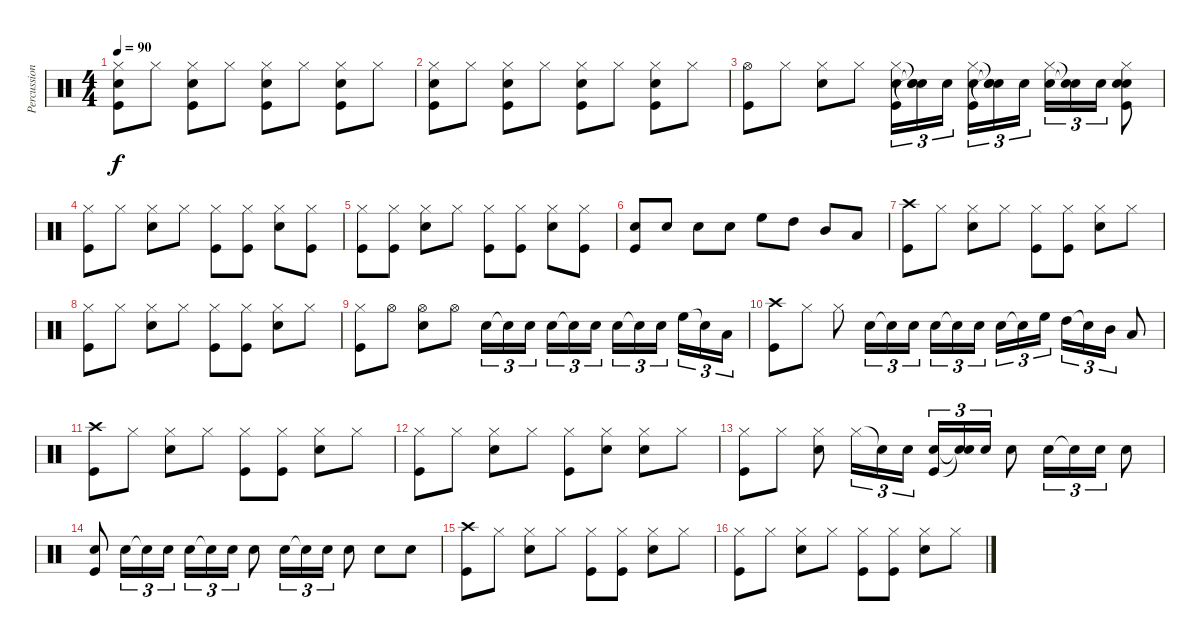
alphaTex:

\track ("Percussion" "Percussion") {instrument percussion}
\staff {score}
\articulation defaults
\ts (4 4)
\tempo 90
\clef neutral
\ks c
("Hi-Hat (closed)" "Snare (hit) 2" "Kick (hit)").8{dy f} "Hi-Hat (closed)".8 ("Hi-Hat (closed)" "Snare (hit) 2" "Kick (hit)").8 "Hi-Hat (closed)".8 ("Hi-Hat (closed)" "Snare (hit) 2" "Kick (hit)").8 "Hi-Hat (closed)".8 ("Hi-Hat (closed)" "Snare (hit) 2" "Kick (hit)").8 "Hi-Hat (closed)".8 |
("Hi-Hat (closed)" "Snare (hit) 2" "Kick (hit)").8 "Hi-Hat (closed)".8 ("Hi-Hat (closed)" "Snare (hit) 2" "Kick (hit)").8 "Hi-Hat (closed)".8 ("Hi-Hat (closed)" "Snare (hit) 2" "Kick (hit)").8 "Hi-Hat (closed)".8 ("Hi-Hat (closed)" "Snare (hit) 2" "Kick (hit)").8 "Hi-Hat (closed)".8 |
("Hi-Hat (open)" "Kick (hit)").8 "Hi-Hat (closed)".8 ("Hi-Hat (closed)" "Snare (hit) 2").8 "Hi-Hat (closed)".8 ("Hi-Hat (closed)" "Snare (hit) 2" "Kick (hit)").16{tu (3 2)} ("Snare (hit)"{t} "Snare (hit)"{t} "Snare (hit)"{t}).16{tu (3 2)} "Snare (hit) 2".16{tu (3 2)} ("Hi-Hat (closed)" "Snare (hit) 2" "Kick (hit)").16{tu (3 2)} ("Snare (hit)"{t} "Snare (hit)"{t} "Snare (hit)"{t}).16{tu (3 2)} "Snare (hit) 2".16{tu (3 2)} ("Hi-Hat (closed)" "Snare (hit) 2").16{tu (3 2)} ("Snare (hit)"{t} "Snare (hit)"{t}).16{tu (3 2)} "Snare (hit) 2".16{tu (3 2)} ("Hi-Hat (closed)" "Snare (hit) 2" "Snare (hit) 2" "Kick (hit)").8 |
("Hi-Hat (closed)" "Kick (hit)").8 "Hi-Hat (closed)".8 ("Hi-Hat (closed)" "Snare (hit) 2").8 "Hi-Hat (closed)".8 ("Hi-Hat (closed)" "Kick (hit)").8 ("Hi-Hat (closed)" "Kick (hit)").8 ("Hi-Hat (closed)" "Snare (hit) 2").8 ("Hi-Hat (closed)" "Kick (hit)").8 |
("Hi-Hat (closed)" "Kick (hit)").8 ("Hi-Hat (closed)" "Kick (hit)").8 ("Hi-Hat (closed)" "Snare (hit) 2").8 "Hi-Hat (closed)".8 ("Hi-Hat (closed)" "Kick (hit)").8 ("Hi-Hat (closed)" "Kick (hit)").8 ("Hi-Hat (closed)" "Snare (hit) 2").8 ("Hi-Hat (closed)" "Kick (hit)").8 |
("Snare (hit) 2" "Kick (hit)").8 "Snare (hit) 2".8 "Snare (hit) 2".8 "Snare (hit) 2".8 "High Floor Tom (hit)".8 "High Tom (hit)".8 "Mid Tom (hit)".8 "Low Tom (hit)".8 |
("Crash high (hit)" "Kick (hit)").8 "Hi-Hat (closed)".8 ("Hi-Hat (closed)" "Snare (hit) 2").8 "Hi-Hat (closed)".8 ("Hi-Hat (closed)" "Kick (hit)").8 ("Hi-Hat (closed)" "Kick (hit)").8 ("Hi-Hat (closed)" "Snare (hit) 2").8 "Hi-Hat (closed)".8 |
("Hi-Hat (closed)" "Kick (hit)").8 "Hi-Hat (closed)".8 ("Hi-Hat (closed)" "Snare (hit) 2").8 "Hi-Hat (closed)".8 ("Hi-Hat (closed)" "Kick (hit)").8 ("Hi-Hat (closed)" "Kick (hit)").8 ("Hi-Hat (closed)" "Snare (hit) 2").8 "Hi-Hat (closed)".8 |
("Hi-Hat (closed)" "Kick (hit)").8 "Hi-Hat (open)".8 ("Hi-Hat (open)" "Snare (hit) 2").8 "Hi-Hat (open)".8 "Snare (hit) 2".16{tu (3 2)} "Snare (hit)"{t}.16{tu (3 2)} "Snare (hit) 2".16{tu (3 2)} "Snare (hit) 2".16{tu (3 2)} "Snare (hit)"{t}.16{tu (3 2)} "Snare (hit) 2".16{tu (3 2)} "Snare (hit) 2".16{tu (3 2)} "Snare (hit)"{t}.16{tu (3 2)} "Snare (hit) 2".16{tu (3 2)} "High Floor Tom (hit)".16{tu (3 2)} "Snare (hit)"{t}.16{tu (3 2)} "Low Tom (hit)".16{tu (3 2)} |
("Crash high (hit)" "Kick (hit)").8 "Hi-Hat (closed)".8 "Hi-Hat (closed)".8 "Snare (hit) 2".16{tu (3 2)} "Snare (hit)"{t}.16{tu (3 2)} "Snare (hit) 2".16{tu (3 2)} "Snare (hit) 2".16{tu (3 2)} "Snare (hit)"{t}.16{tu (3 2)} "Snare (hit) 2".16{tu (3 2)} "Snare (hit) 2".16{tu (3 2)} "Snare (hit)"{t}.16{tu (3 2)} "High Floor Tom (hit)".16{tu (3 2)} "High Tom (hit)".16{tu (3 2)} "Snare (hit)"{t}.16{tu (3 2)} "Mid Tom (hit)".16{tu (3 2)} "Low Tom (hit)".8 |
("Crash high (hit)" "Kick (hit)").8 "Hi-Hat (closed)".8 ("Hi-Hat (closed)" "Snare (hit) 2").8 "Hi-Hat (closed)".8 ("Hi-Hat (closed)" "Kick (hit)").8 ("Hi-Hat (closed)" "Kick (hit)").8 ("Hi-Hat (closed)" "Snare (hit) 2").8 "Hi-Hat (closed)".8 |
("Hi-Hat (closed)" "Kick (hit)").8 "Hi-Hat (closed)".8 ("Hi-Hat (closed)" "Snare (hit) 2").8 "Hi-Hat (closed)".8 ("Hi-Hat (closed)" "Kick (hit)").8 ("Hi-Hat (closed)" "Snare (hit) 2").8 ("Hi-Hat (closed)" "Snare (hit) 2").8 "Hi-Hat (closed)".8 |
("Hi-Hat (closed)" "Kick (hit)").8 "Hi-Hat (closed)".8 ("Hi-Hat (closed)" "Snare (hit) 2").8 "Hi-Hat (closed)".16{tu (3 2)} "Snare (hit)"{t}.16{tu (3 2)} "Snare (hit) 2".16{tu (3 2)} ("Snare (hit) 2" "Kick (hit)").16{tu (3 2)} ("Snare (hit)"{t} "Snare (hit)"{t}).16{tu (3 2)} "Snare (hit) 2".16{tu (3 2)} "Snare (hit) 2".8 "Snare (hit) 2".16{tu (3 2)} "Snare (hit)"{t}.16{tu (3 2)} "Snare (hit) 2".16{tu (3 2)} "Snare (hit) 2".8 |
("Snare (hit) 2" "Kick (hit)").8 "Snare (hit) 2".16{tu (3 2)} "Snare (hit)"{t}.16{tu (3 2)} "Snare (hit) 2".16{tu (3 2)} "Snare (hit) 2".16{tu (3 2)} "Snare (hit)"{t}.16{tu (3 2)} "Snare (hit) 2".16{tu (3 2)} "Snare (hit) 2".8 "Snare (hit) 2".16{tu (3 2)} "Snare (hit)"{t}.16{tu (3 2)} "Snare (hit) 2".16{tu (3 2)} "Snare (hit) 2".8 "Snare (hit) 2".8 "Snare (hit) 2".8 |
("Crash high (hit)" "Kick (hit)").8 "Hi-Hat (closed)".8 ("Hi-Hat (closed)" "Snare (hit) 2").8 "Hi-Hat (closed)".8 ("Hi-Hat (closed)" "Kick (hit)").8 ("Hi-Hat (closed)" "Kick (hit)").8 ("Hi-Hat (closed)" "Snare (hit) 2").8 "Hi-Hat (closed)".8 |
("Hi-Hat (closed)" "Kick (hit)").8 "Hi-Hat (closed)".8 ("Hi-Hat (closed)" "Snare (hit) 2").8 "Hi-Hat (closed)".8 ("Hi-Hat (closed)" "Kick (hit)").8 ("Hi-Hat (closed)" "Kick (hit)").8 ("Hi-Hat (closed)" "Snare (hit) 2").8 "Hi-Hat (closed)".8
